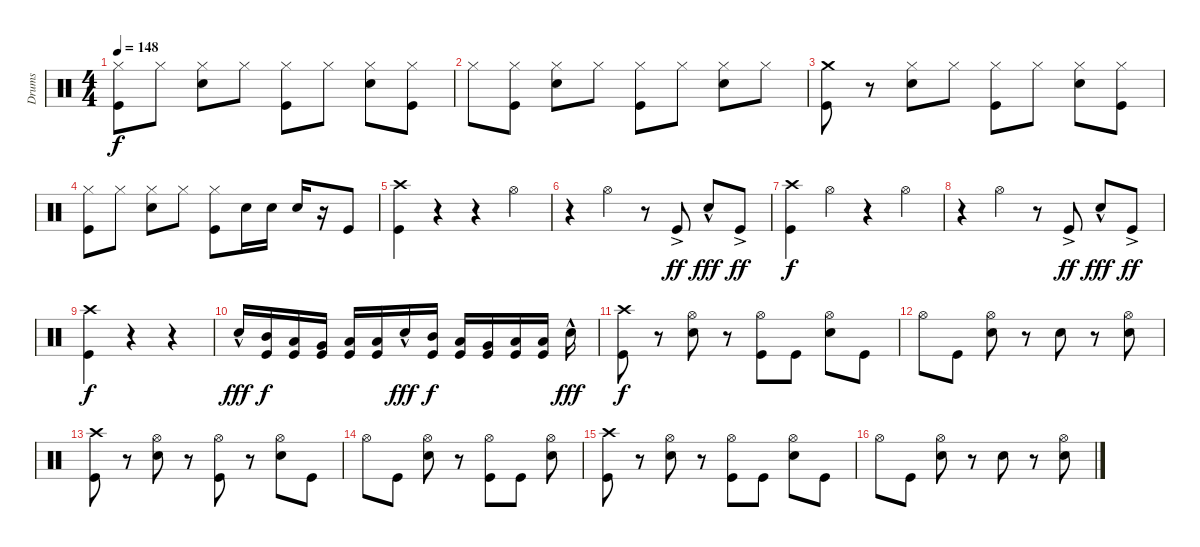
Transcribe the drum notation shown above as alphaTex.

\track ("Drums" "Drums") {instrument percussion}
\staff {score}
\articulation defaults
\ts (4 4)
\tempo 148
\clef neutral
\ks c
("Hi-Hat (closed)" "Kick (hit)").8{dy f} "Hi-Hat (closed)".8 ("Hi-Hat (closed)" "Electric Snare (hit)").8 "Hi-Hat (closed)".8 ("Hi-Hat (closed)" "Kick (hit)").8 "Hi-Hat (closed)".8 ("Hi-Hat (closed)" "Electric Snare (hit)").8 ("Hi-Hat (closed)" "Kick (hit)").8 |
"Hi-Hat (closed)".8 ("Hi-Hat (closed)" "Kick (hit)").8 ("Hi-Hat (closed)" "Electric Snare (hit)").8 "Hi-Hat (closed)".8 ("Hi-Hat (closed)" "Kick (hit)").8 "Hi-Hat (closed)".8 ("Hi-Hat (closed)" "Electric Snare (hit)").8 "Hi-Hat (closed)".8 |
("Crash medium (hit)" "Kick (hit)").8 r.8 ("Hi-Hat (closed)" "Electric Snare (hit)").8 "Hi-Hat (closed)".8 ("Hi-Hat (closed)" "Kick (hit)").8 "Hi-Hat (closed)".8 ("Hi-Hat (closed)" "Electric Snare (hit)").8 ("Hi-Hat (closed)" "Kick (hit)").8 |
("Hi-Hat (closed)" "Kick (hit)").8 "Hi-Hat (closed)".8 ("Hi-Hat (closed)" "Electric Snare (hit)").8 "Hi-Hat (closed)".8 ("Hi-Hat (closed)" "Kick (hit)").8 "Electric Snare (hit)".16 "Electric Snare (hit)".16 "Electric Snare (hit)".16 r.16 "Kick (hit)".8 |
("Crash high (hit)" "Kick (hit)").4 r.4 r.4 "Hi-Hat (open)".4 |
r.4 "Hi-Hat (open)".4 r.8 "Kick (hit)"{ac}.8{dy ff} "Electric Snare (hit)"{hac}.8{dy fff} "Kick (hit)"{ac}.8{dy ff} |
("Crash high (hit)" "Kick (hit)").4{dy f} "Hi-Hat (open)".4 r.4 "Hi-Hat (open)".4 |
r.4 "Hi-Hat (open)".4 r.8 "Kick (hit)"{ac}.8{dy ff} "Electric Snare (hit)"{hac}.8{dy fff} "Kick (hit)"{ac}.8{dy ff} |
("Crash high (hit)" "Kick (hit)").4{dy f} r.4 r.4 |
"Electric Snare (hit)"{hac}.16{dy fff} ("Mid Tom (hit)" "Kick (hit)").16{dy f} ("Low Tom (hit)" "Kick (hit)").16 ("Very Low Tom (hit)" "Kick (hit)").16 ("Low Floor Tom (hit)" "Kick (hit)").16 ("Low Floor Tom (hit)" "Kick (hit)").16 "Electric Snare (hit)"{hac}.16{dy fff} ("Mid Tom (hit)" "Kick (hit)").16{dy f} ("Low Tom (hit)" "Kick (hit)").16 ("Very Low Tom (hit)" "Kick (hit)").16 ("Low Floor Tom (hit)" "Kick (hit)").16 ("Low Floor Tom (hit)" "Kick (hit)").16 "Electric Snare (hit)"{hac}.16{dy fff} |
("Crash high (hit)" "Kick (hit)").8{dy f} r.8 ("Hi-Hat (open)" "Electric Snare (hit)").8 r.8 ("Hi-Hat (open)" "Kick (hit)").8 "Kick (hit)".8 ("Hi-Hat (open)" "Electric Snare (hit)").8 "Kick (hit)".8 |
"Hi-Hat (open)".8 "Kick (hit)".8 ("Hi-Hat (open)" "Electric Snare (hit)").8 r.8 "Electric Snare (hit)".8 r.8 ("Hi-Hat (open)" "Electric Snare (hit)").8 |
("Crash high (hit)" "Kick (hit)").8 r.8 ("Hi-Hat (open)" "Electric Snare (hit)").8 r.8 ("Hi-Hat (open)" "Kick (hit)").8 r.8 ("Hi-Hat (open)" "Electric Snare (hit)").8 "Kick (hit)".8 |
"Hi-Hat (open)".8 "Kick (hit)".8 ("Hi-Hat (open)" "Electric Snare (hit)").8 r.8 ("Hi-Hat (open)" "Kick (hit)").8 "Kick (hit)".8 ("Hi-Hat (open)" "Electric Snare (hit)").8 |
("Crash high (hit)" "Kick (hit)").8 r.8 ("Hi-Hat (open)" "Electric Snare (hit)").8 r.8 ("Hi-Hat (open)" "Kick (hit)").8 "Kick (hit)".8 ("Hi-Hat (open)" "Electric Snare (hit)").8 "Kick (hit)".8 |
"Hi-Hat (open)".8 "Kick (hit)".8 ("Hi-Hat (open)" "Electric Snare (hit)").8 r.8 "Electric Snare (hit)".8 r.8 ("Hi-Hat (open)" "Electric Snare (hit)").8
